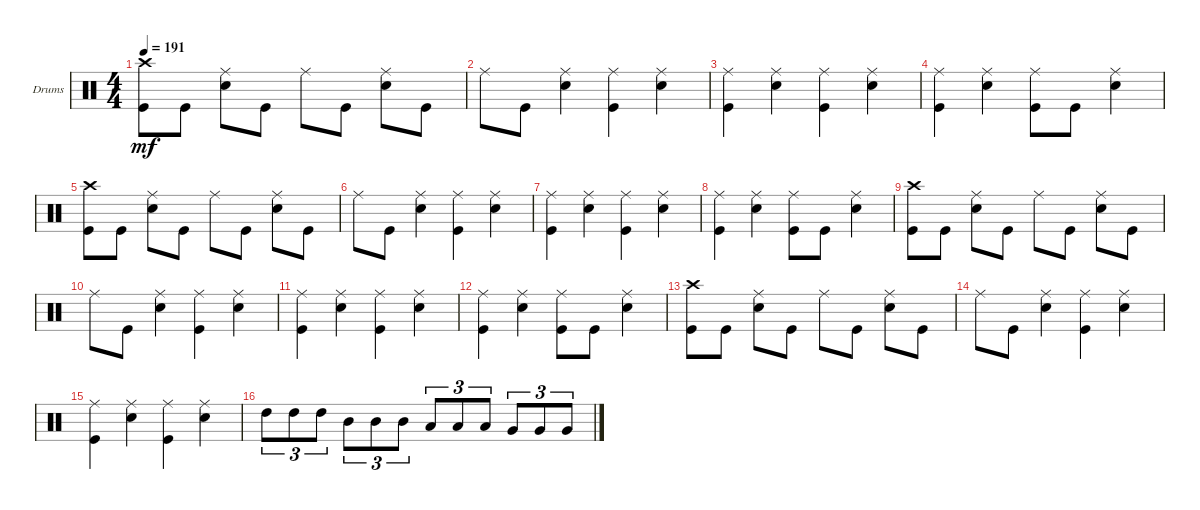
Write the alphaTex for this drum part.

\defaultSystemsLayout 4
\bracketExtendMode groupsimilarinstruments
\firstSystemTrackNameOrientation horizontal
\otherSystemsTrackNameOrientation horizontal
\track ("Drumkit" "Drums") {instrument percussion}
\staff {score}
\articulation defaults
\ts (4 4)
\tempo 191
\clef neutral
\scale
0.333333
\ks c
("Crash high (hit)" "Kick (hit)").8{dy mf} "Kick (hit)".8 ("Snare (hit) 2" "Ride (middle)").8 "Kick (hit)".8 "Ride (middle)".8 "Kick (hit)".8 ("Snare (hit) 2" "Ride (middle)").8 "Kick (hit)".8 |
\scale
0.333333 "Ride (middle)".8 "Kick (hit)".8 ("Snare (hit) 2" "Ride (middle)").4 ("Kick (hit)" "Ride (middle)").4 ("Snare (hit) 2" "Ride (middle)").4 |
\scale
0.333333 ("Kick (hit)" "Ride (middle)").4 ("Snare (hit) 2" "Ride (middle)").4 ("Kick (hit)" "Ride (middle)").4 ("Snare (hit) 2" "Ride (middle)").4 |
\scale
0.333333 ("Kick (hit)" "Ride (middle)").4 ("Snare (hit) 2" "Ride (middle)").4 ("Kick (hit)" "Ride (middle)").8 "Kick (hit)".8 ("Snare (hit) 2" "Ride (middle)").4 |
\scale
0.333333 ("Crash high (hit)" "Kick (hit)").8 "Kick (hit)".8 ("Snare (hit) 2" "Ride (middle)").8 "Kick (hit)".8 "Ride (middle)".8 "Kick (hit)".8 ("Snare (hit) 2" "Ride (middle)").8 "Kick (hit)".8 |
\scale
0.333333 "Ride (middle)".8 "Kick (hit)".8 ("Snare (hit) 2" "Ride (middle)").4 ("Kick (hit)" "Ride (middle)").4 ("Snare (hit) 2" "Ride (middle)").4 |
\scale
0.333333 ("Kick (hit)" "Ride (middle)").4 ("Snare (hit) 2" "Ride (middle)").4 ("Kick (hit)" "Ride (middle)").4 ("Snare (hit) 2" "Ride (middle)").4 |
\scale
0.333333 ("Kick (hit)" "Ride (middle)").4 ("Snare (hit) 2" "Ride (middle)").4 ("Kick (hit)" "Ride (middle)").8 "Kick (hit)".8 ("Snare (hit) 2" "Ride (middle)").4 |
\scale
0.333333 ("Crash high (hit)" "Kick (hit)").8 "Kick (hit)".8 ("Snare (hit) 2" "Ride (middle)").8 "Kick (hit)".8 "Ride (middle)".8 "Kick (hit)".8 ("Snare (hit) 2" "Ride (middle)").8 "Kick (hit)".8 |
\scale
0.333333 "Ride (middle)".8 "Kick (hit)".8 ("Snare (hit) 2" "Ride (middle)").4 ("Kick (hit)" "Ride (middle)").4 ("Snare (hit) 2" "Ride (middle)").4 |
\scale
0.333333 ("Kick (hit)" "Ride (middle)").4 ("Snare (hit) 2" "Ride (middle)").4 ("Kick (hit)" "Ride (middle)").4 ("Snare (hit) 2" "Ride (middle)").4 |
\scale
0.333333 ("Kick (hit)" "Ride (middle)").4 ("Snare (hit) 2" "Ride (middle)").4 ("Kick (hit)" "Ride (middle)").8 "Kick (hit)".8 ("Snare (hit) 2" "Ride (middle)").4 |
\scale
0.333333 ("Crash high (hit)" "Kick (hit)").8 "Kick (hit)".8 ("Snare (hit) 2" "Ride (middle)").8 "Kick (hit)".8 "Ride (middle)".8 "Kick (hit)".8 ("Snare (hit) 2" "Ride (middle)").8 "Kick (hit)".8 |
\scale
0.333333 "Ride (middle)".8 "Kick (hit)".8 ("Snare (hit) 2" "Ride (middle)").4 ("Kick (hit)" "Ride (middle)").4 ("Snare (hit) 2" "Ride (middle)").4 |
\scale
0.333333 ("Kick (hit)" "Ride (middle)").4 ("Snare (hit) 2" "Ride (middle)").4 ("Kick (hit)" "Ride (middle)").4 ("Snare (hit) 2" "Ride (middle)").4 |
\scale
0.333333 "High Tom (hit)".8{tu (3 2)} "High Tom (hit)".8{tu (3 2)} "High Tom (hit)".8{tu (3 2)} "Mid Tom (hit)".8{tu (3 2)} "Mid Tom (hit)".8{tu (3 2)} "Mid Tom (hit)".8{tu (3 2)} "Low Tom (hit)".8{tu (3 2)} "Low Tom (hit)".8{tu (3 2)} "Low Tom (hit)".8{tu (3 2)} "Very Low Tom (hit)".8{tu (3 2)} "Very Low Tom (hit)".8{tu (3 2)} "Very Low Tom (hit)".8{tu (3 2)}
